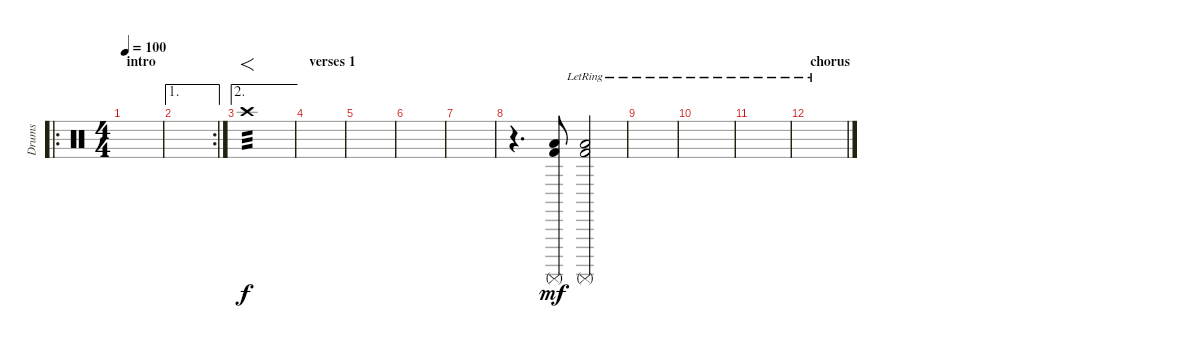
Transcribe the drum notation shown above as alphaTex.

\track ("Drums" "Drums") {instrument percussion}
\staff {score}
\articulation defaults
\ro
\ts (4 4)
\section ("" "intro")
\tempo 100
\clef neutral
\ks c
|
\ae 1
\rc 2
|
\ae 2 "Crash high (hit)".1{f tp 3}
|
\section ("" "verses 1")
|
|
|
|
r.4{d} ("Surdo (mute)" "Low Tom (hit)" "Kick (hit) 2").8{dy mf} ("Surdo (mute)"{lr} "Low Tom (hit)"{lr} "Kick (hit) 2"{lr}).2 |
|
|
|
\section ("" "chorus")
